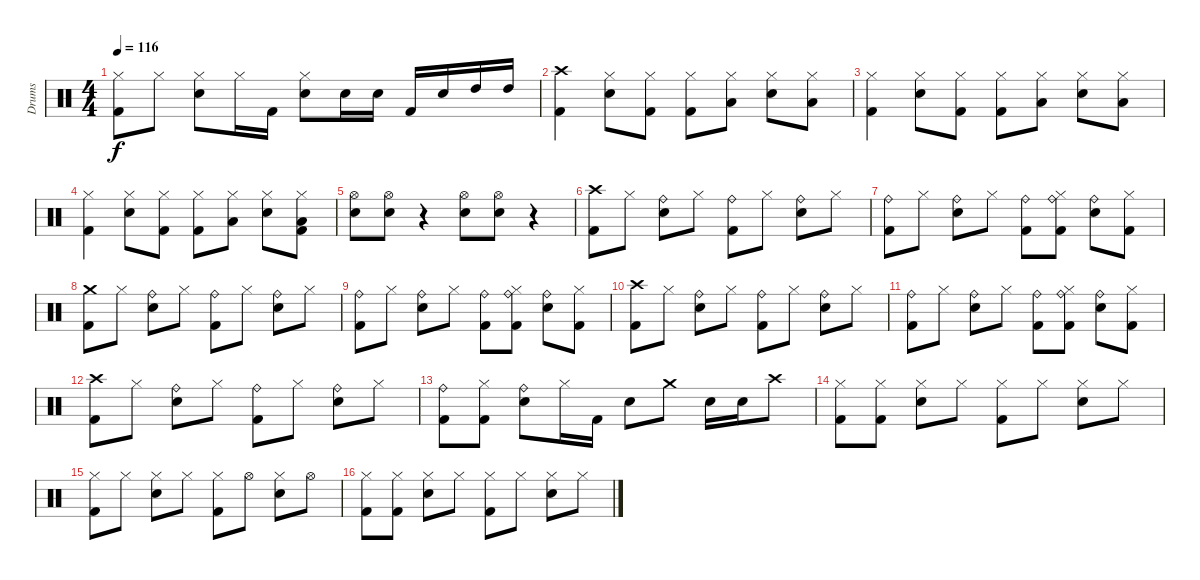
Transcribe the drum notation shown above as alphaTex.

\track ("Drums" "Drums") {instrument percussion}
\staff {score}
\articulation defaults
\ts (4 4)
\tempo 116
\clef neutral
\ks c
("Kick (hit) 2" "Hi-Hat (closed)").8{dy f} "Hi-Hat (closed)".8 ("Snare (hit) 2" "Hi-Hat (closed)").8 "Hi-Hat (closed)".16 "Kick (hit) 2".16 ("Snare (hit) 2" "Hi-Hat (closed)").8 "Snare (hit) 2".16 "Snare (hit) 2".16 "Kick (hit) 2".16 "Snare (hit) 2".16 "High Tom (hit)".16 "High Tom (hit)".16 |
("Kick (hit) 2" "Crash high (hit)").4 ("Snare (hit) 2" "Hi-Hat (closed)").8 ("Kick (hit) 2" "Hi-Hat (closed)").8 ("Kick (hit) 2" "Hi-Hat (closed)").8 ("Hi-Hat (closed)" "Low Tom (hit)").8 ("Snare (hit) 2" "Hi-Hat (closed)").8 ("Hi-Hat (closed)" "Low Tom (hit)").8 |
("Kick (hit) 2" "Hi-Hat (closed)").4 ("Snare (hit) 2" "Hi-Hat (closed)").8 ("Kick (hit) 2" "Hi-Hat (closed)").8 ("Kick (hit) 2" "Hi-Hat (closed)").8 ("Hi-Hat (closed)" "Low Tom (hit)").8 ("Snare (hit) 2" "Hi-Hat (closed)").8 ("Hi-Hat (closed)" "Low Tom (hit)").8 |
("Kick (hit) 2" "Hi-Hat (closed)").4 ("Snare (hit) 2" "Hi-Hat (closed)").8 ("Kick (hit) 2" "Hi-Hat (closed)").8 ("Kick (hit) 2" "Hi-Hat (closed)").8 ("Hi-Hat (closed)" "Low Tom (hit)").8 ("Snare (hit) 2" "Hi-Hat (closed)").8 ("Kick (hit) 2" "Hi-Hat (closed)" "Low Tom (hit)").8 |
("Snare (hit) 2" "Hi-Hat (open)").8 ("Snare (hit) 2" "Hi-Hat (open)").8 r.4 ("Snare (hit) 2" "Hi-Hat (open)").8 ("Snare (hit) 2" "Hi-Hat (open)").8 r.4 |
("Kick (hit) 2" "Crash high (hit)").8 "Hi-Hat (closed)".8 ("Snare (hit) 2" "Ride (bell)").8 "Hi-Hat (closed)".8 ("Kick (hit) 2" "Ride (bell)").8 "Hi-Hat (closed)".8 ("Snare (hit) 2" "Ride (bell)").8 "Hi-Hat (closed)".8 |
("Kick (hit) 2" "Ride (bell)").8 "Hi-Hat (closed)".8 ("Snare (hit) 2" "Ride (bell)").8 "Hi-Hat (closed)".8 ("Kick (hit) 2" "Ride (bell)").8 ("Kick (hit) 2" "Hi-Hat (closed)" "Ride (bell)").8 ("Snare (hit) 2" "Ride (bell)").8 ("Kick (hit) 2" "Hi-Hat (closed)").8 |
("Kick (hit) 2" "Crash medium (hit)").8 "Hi-Hat (closed)".8 ("Snare (hit) 2" "Ride (bell)").8 "Hi-Hat (closed)".8 ("Kick (hit) 2" "Ride (bell)").8 "Hi-Hat (closed)".8 ("Snare (hit) 2" "Ride (bell)").8 "Hi-Hat (closed)".8 |
("Kick (hit) 2" "Ride (bell)").8 "Hi-Hat (closed)".8 ("Snare (hit) 2" "Ride (bell)").8 "Hi-Hat (closed)".8 ("Kick (hit) 2" "Ride (bell)").8 ("Kick (hit) 2" "Hi-Hat (closed)" "Ride (bell)").8 ("Snare (hit) 2" "Ride (bell)").8 ("Kick (hit) 2" "Hi-Hat (closed)").8 |
("Kick (hit) 2" "Crash high (hit)").8 "Hi-Hat (closed)".8 ("Snare (hit) 2" "Ride (bell)").8 "Hi-Hat (closed)".8 ("Kick (hit) 2" "Ride (bell)").8 "Hi-Hat (closed)".8 ("Snare (hit) 2" "Ride (bell)").8 "Hi-Hat (closed)".8 |
("Kick (hit) 2" "Ride (bell)").8 "Hi-Hat (closed)".8 ("Snare (hit) 2" "Ride (bell)").8 "Hi-Hat (closed)".8 ("Kick (hit) 2" "Ride (bell)").8 ("Kick (hit) 2" "Hi-Hat (closed)" "Ride (bell)").8 ("Snare (hit) 2" "Ride (bell)").8 ("Kick (hit) 2" "Hi-Hat (closed)").8 |
("Kick (hit) 2" "Crash high (hit)").8 "Hi-Hat (closed)".8 ("Snare (hit) 2" "Ride (bell)").8 "Hi-Hat (closed)".8 ("Kick (hit) 2" "Ride (bell)").8 "Hi-Hat (closed)".8 ("Snare (hit) 2" "Ride (bell)").8 "Hi-Hat (closed)".8 |
("Kick (hit) 2" "Ride (bell)").8 ("Kick (hit) 2" "Hi-Hat (closed)").8 ("Snare (hit) 2" "Ride (bell)").8 "Hi-Hat (closed)".16 "Kick (hit) 2".16 "Snare (hit) 2".8 "Crash medium (hit)".8 "Snare (hit) 2".16 "Snare (hit) 2".16 "Crash high (hit)".8 |
("Kick (hit) 2" "Hi-Hat (closed)").8 ("Kick (hit) 2" "Hi-Hat (closed)").8 ("Snare (hit) 2" "Hi-Hat (closed)").8 "Hi-Hat (closed)".8 ("Kick (hit) 2" "Hi-Hat (closed)").8 "Hi-Hat (closed)".8 ("Snare (hit) 2" "Hi-Hat (closed)").8 "Hi-Hat (closed)".8 |
("Kick (hit) 2" "Hi-Hat (closed)").8 "Hi-Hat (closed)".8 ("Snare (hit) 2" "Hi-Hat (closed)").8 "Hi-Hat (closed)".8 ("Kick (hit) 2" "Hi-Hat (closed)").8 "Hi-Hat (open)".8 ("Snare (hit) 2" "Hi-Hat (closed)").8 "Hi-Hat (open)".8 |
("Kick (hit) 2" "Hi-Hat (closed)").8 ("Kick (hit) 2" "Hi-Hat (closed)").8 ("Snare (hit) 2" "Hi-Hat (closed)").8 "Hi-Hat (closed)".8 ("Kick (hit) 2" "Hi-Hat (closed)").8 "Hi-Hat (closed)".8 ("Snare (hit) 2" "Hi-Hat (closed)").8 "Hi-Hat (closed)".8
